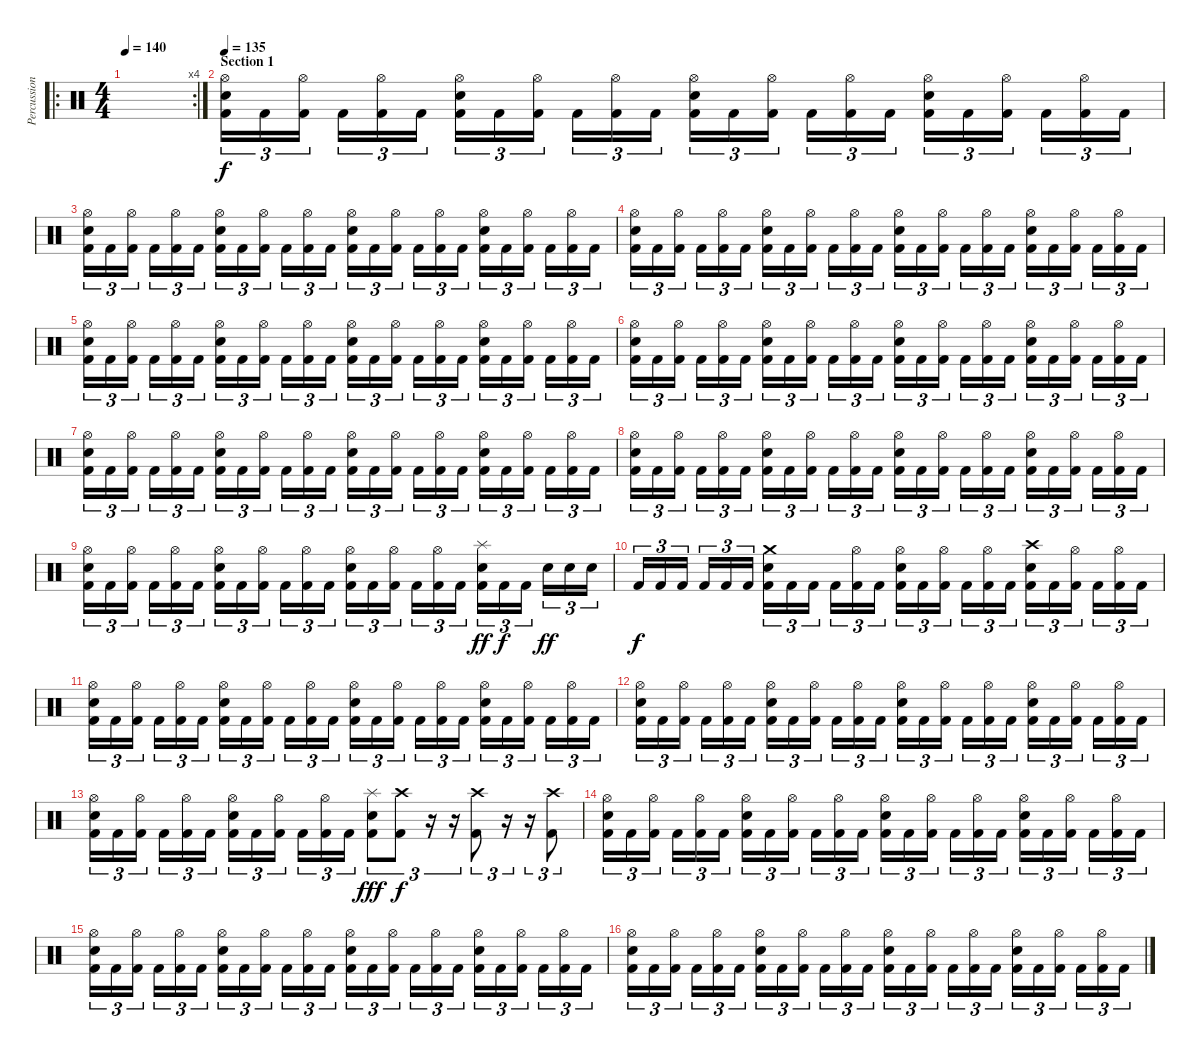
\track ("Percussion" "Percussion") {instrument percussion}
\staff {score}
\articulation defaults
\ro
\rc 4
\ts (4 4)
\tempo 140
\tempo 112
\tempo 140
\clef neutral
\ks c
|
\section ("" "Section 1")
\tempo 135
("Hi-Hat (open)" "Electric Snare (hit)" "Kick (hit) 2").16{tu (3 2)} "Kick (hit) 2".16{tu (3 2)} ("Hi-Hat (open)" "Kick (hit) 2").16{tu (3 2)} "Kick (hit) 2".16{tu (3 2)} ("Hi-Hat (open)" "Kick (hit) 2").16{tu (3 2)} "Kick (hit) 2".16{tu (3 2)} ("Hi-Hat (open)" "Electric Snare (hit)" "Kick (hit) 2").16{tu (3 2)} "Kick (hit) 2".16{tu (3 2)} ("Hi-Hat (open)" "Kick (hit) 2").16{tu (3 2)} "Kick (hit) 2".16{tu (3 2)} ("Hi-Hat (open)" "Kick (hit) 2").16{tu (3 2)} "Kick (hit) 2".16{tu (3 2)} ("Hi-Hat (open)" "Electric Snare (hit)" "Kick (hit) 2").16{tu (3 2)} "Kick (hit) 2".16{tu (3 2)} ("Hi-Hat (open)" "Kick (hit) 2").16{tu (3 2)} "Kick (hit) 2".16{tu (3 2)} ("Hi-Hat (open)" "Kick (hit) 2").16{tu (3 2)} "Kick (hit) 2".16{tu (3 2)} ("Hi-Hat (open)" "Electric Snare (hit)" "Kick (hit) 2").16{tu (3 2)} "Kick (hit) 2".16{tu (3 2)} ("Hi-Hat (open)" "Kick (hit) 2").16{tu (3 2)} "Kick (hit) 2".16{tu (3 2)} ("Hi-Hat (open)" "Kick (hit) 2").16{tu (3 2)} "Kick (hit) 2".16{tu (3 2)} |
("Hi-Hat (open)" "Electric Snare (hit)" "Kick (hit) 2").16{tu (3 2)} "Kick (hit) 2".16{tu (3 2)} ("Hi-Hat (open)" "Kick (hit) 2").16{tu (3 2)} "Kick (hit) 2".16{tu (3 2)} ("Hi-Hat (open)" "Kick (hit) 2").16{tu (3 2)} "Kick (hit) 2".16{tu (3 2)} ("Hi-Hat (open)" "Electric Snare (hit)" "Kick (hit) 2").16{tu (3 2)} "Kick (hit) 2".16{tu (3 2)} ("Hi-Hat (open)" "Kick (hit) 2").16{tu (3 2)} "Kick (hit) 2".16{tu (3 2)} ("Hi-Hat (open)" "Kick (hit) 2").16{tu (3 2)} "Kick (hit) 2".16{tu (3 2)} ("Hi-Hat (open)" "Electric Snare (hit)" "Kick (hit) 2").16{tu (3 2)} "Kick (hit) 2".16{tu (3 2)} ("Hi-Hat (open)" "Kick (hit) 2").16{tu (3 2)} "Kick (hit) 2".16{tu (3 2)} ("Hi-Hat (open)" "Kick (hit) 2").16{tu (3 2)} "Kick (hit) 2".16{tu (3 2)} ("Hi-Hat (open)" "Electric Snare (hit)" "Kick (hit) 2").16{tu (3 2)} "Kick (hit) 2".16{tu (3 2)} ("Hi-Hat (open)" "Kick (hit) 2").16{tu (3 2)} "Kick (hit) 2".16{tu (3 2)} ("Hi-Hat (open)" "Kick (hit) 2").16{tu (3 2)} "Kick (hit) 2".16{tu (3 2)} |
("Hi-Hat (open)" "Electric Snare (hit)" "Kick (hit) 2").16{tu (3 2)} "Kick (hit) 2".16{tu (3 2)} ("Hi-Hat (open)" "Kick (hit) 2").16{tu (3 2)} "Kick (hit) 2".16{tu (3 2)} ("Hi-Hat (open)" "Kick (hit) 2").16{tu (3 2)} "Kick (hit) 2".16{tu (3 2)} ("Hi-Hat (open)" "Electric Snare (hit)" "Kick (hit) 2").16{tu (3 2)} "Kick (hit) 2".16{tu (3 2)} ("Hi-Hat (open)" "Kick (hit) 2").16{tu (3 2)} "Kick (hit) 2".16{tu (3 2)} ("Hi-Hat (open)" "Kick (hit) 2").16{tu (3 2)} "Kick (hit) 2".16{tu (3 2)} ("Hi-Hat (open)" "Electric Snare (hit)" "Kick (hit) 2").16{tu (3 2)} "Kick (hit) 2".16{tu (3 2)} ("Hi-Hat (open)" "Kick (hit) 2").16{tu (3 2)} "Kick (hit) 2".16{tu (3 2)} ("Hi-Hat (open)" "Kick (hit) 2").16{tu (3 2)} "Kick (hit) 2".16{tu (3 2)} ("Hi-Hat (open)" "Electric Snare (hit)" "Kick (hit) 2").16{tu (3 2)} "Kick (hit) 2".16{tu (3 2)} ("Hi-Hat (open)" "Kick (hit) 2").16{tu (3 2)} "Kick (hit) 2".16{tu (3 2)} ("Hi-Hat (open)" "Kick (hit) 2").16{tu (3 2)} "Kick (hit) 2".16{tu (3 2)} |
("Hi-Hat (open)" "Electric Snare (hit)" "Kick (hit) 2").16{tu (3 2)} "Kick (hit) 2".16{tu (3 2)} ("Hi-Hat (open)" "Kick (hit) 2").16{tu (3 2)} "Kick (hit) 2".16{tu (3 2)} ("Hi-Hat (open)" "Kick (hit) 2").16{tu (3 2)} "Kick (hit) 2".16{tu (3 2)} ("Hi-Hat (open)" "Electric Snare (hit)" "Kick (hit) 2").16{tu (3 2)} "Kick (hit) 2".16{tu (3 2)} ("Hi-Hat (open)" "Kick (hit) 2").16{tu (3 2)} "Kick (hit) 2".16{tu (3 2)} ("Hi-Hat (open)" "Kick (hit) 2").16{tu (3 2)} "Kick (hit) 2".16{tu (3 2)} ("Hi-Hat (open)" "Electric Snare (hit)" "Kick (hit) 2").16{tu (3 2)} "Kick (hit) 2".16{tu (3 2)} ("Hi-Hat (open)" "Kick (hit) 2").16{tu (3 2)} "Kick (hit) 2".16{tu (3 2)} ("Hi-Hat (open)" "Kick (hit) 2").16{tu (3 2)} "Kick (hit) 2".16{tu (3 2)} ("Hi-Hat (open)" "Electric Snare (hit)" "Kick (hit) 2").16{tu (3 2)} "Kick (hit) 2".16{tu (3 2)} ("Hi-Hat (open)" "Kick (hit) 2").16{tu (3 2)} "Kick (hit) 2".16{tu (3 2)} ("Hi-Hat (open)" "Kick (hit) 2").16{tu (3 2)} "Kick (hit) 2".16{tu (3 2)} |
("Hi-Hat (open)" "Electric Snare (hit)" "Kick (hit) 2").16{tu (3 2)} "Kick (hit) 2".16{tu (3 2)} ("Hi-Hat (open)" "Kick (hit) 2").16{tu (3 2)} "Kick (hit) 2".16{tu (3 2)} ("Hi-Hat (open)" "Kick (hit) 2").16{tu (3 2)} "Kick (hit) 2".16{tu (3 2)} ("Hi-Hat (open)" "Electric Snare (hit)" "Kick (hit) 2").16{tu (3 2)} "Kick (hit) 2".16{tu (3 2)} ("Hi-Hat (open)" "Kick (hit) 2").16{tu (3 2)} "Kick (hit) 2".16{tu (3 2)} ("Hi-Hat (open)" "Kick (hit) 2").16{tu (3 2)} "Kick (hit) 2".16{tu (3 2)} ("Hi-Hat (open)" "Electric Snare (hit)" "Kick (hit) 2").16{tu (3 2)} "Kick (hit) 2".16{tu (3 2)} ("Hi-Hat (open)" "Kick (hit) 2").16{tu (3 2)} "Kick (hit) 2".16{tu (3 2)} ("Hi-Hat (open)" "Kick (hit) 2").16{tu (3 2)} "Kick (hit) 2".16{tu (3 2)} ("Hi-Hat (open)" "Electric Snare (hit)" "Kick (hit) 2").16{tu (3 2)} "Kick (hit) 2".16{tu (3 2)} ("Hi-Hat (open)" "Kick (hit) 2").16{tu (3 2)} "Kick (hit) 2".16{tu (3 2)} ("Hi-Hat (open)" "Kick (hit) 2").16{tu (3 2)} "Kick (hit) 2".16{tu (3 2)} |
("Hi-Hat (open)" "Electric Snare (hit)" "Kick (hit) 2").16{tu (3 2)} "Kick (hit) 2".16{tu (3 2)} ("Hi-Hat (open)" "Kick (hit) 2").16{tu (3 2)} "Kick (hit) 2".16{tu (3 2)} ("Hi-Hat (open)" "Kick (hit) 2").16{tu (3 2)} "Kick (hit) 2".16{tu (3 2)} ("Hi-Hat (open)" "Electric Snare (hit)" "Kick (hit) 2").16{tu (3 2)} "Kick (hit) 2".16{tu (3 2)} ("Hi-Hat (open)" "Kick (hit) 2").16{tu (3 2)} "Kick (hit) 2".16{tu (3 2)} ("Hi-Hat (open)" "Kick (hit) 2").16{tu (3 2)} "Kick (hit) 2".16{tu (3 2)} ("Hi-Hat (open)" "Electric Snare (hit)" "Kick (hit) 2").16{tu (3 2)} "Kick (hit) 2".16{tu (3 2)} ("Hi-Hat (open)" "Kick (hit) 2").16{tu (3 2)} "Kick (hit) 2".16{tu (3 2)} ("Hi-Hat (open)" "Kick (hit) 2").16{tu (3 2)} "Kick (hit) 2".16{tu (3 2)} ("Hi-Hat (open)" "Electric Snare (hit)" "Kick (hit) 2").16{tu (3 2)} "Kick (hit) 2".16{tu (3 2)} ("Hi-Hat (open)" "Kick (hit) 2").16{tu (3 2)} "Kick (hit) 2".16{tu (3 2)} ("Hi-Hat (open)" "Kick (hit) 2").16{tu (3 2)} "Kick (hit) 2".16{tu (3 2)} |
("Hi-Hat (open)" "Electric Snare (hit)" "Kick (hit) 2").16{tu (3 2)} "Kick (hit) 2".16{tu (3 2)} ("Hi-Hat (open)" "Kick (hit) 2").16{tu (3 2)} "Kick (hit) 2".16{tu (3 2)} ("Hi-Hat (open)" "Kick (hit) 2").16{tu (3 2)} "Kick (hit) 2".16{tu (3 2)} ("Hi-Hat (open)" "Electric Snare (hit)" "Kick (hit) 2").16{tu (3 2)} "Kick (hit) 2".16{tu (3 2)} ("Hi-Hat (open)" "Kick (hit) 2").16{tu (3 2)} "Kick (hit) 2".16{tu (3 2)} ("Hi-Hat (open)" "Kick (hit) 2").16{tu (3 2)} "Kick (hit) 2".16{tu (3 2)} ("Hi-Hat (open)" "Electric Snare (hit)" "Kick (hit) 2").16{tu (3 2)} "Kick (hit) 2".16{tu (3 2)} ("Hi-Hat (open)" "Kick (hit) 2").16{tu (3 2)} "Kick (hit) 2".16{tu (3 2)} ("Hi-Hat (open)" "Kick (hit) 2").16{tu (3 2)} "Kick (hit) 2".16{tu (3 2)} ("Hi-Hat (open)" "Electric Snare (hit)" "Kick (hit) 2").16{tu (3 2)} "Kick (hit) 2".16{tu (3 2)} ("Hi-Hat (open)" "Kick (hit) 2").16{tu (3 2)} "Kick (hit) 2".16{tu (3 2)} ("Hi-Hat (open)" "Kick (hit) 2").16{tu (3 2)} "Kick (hit) 2".16{tu (3 2)} |
("Hi-Hat (open)" "Electric Snare (hit)" "Kick (hit) 2").16{tu (3 2)} "Kick (hit) 2".16{tu (3 2)} ("Hi-Hat (open)" "Kick (hit) 2").16{tu (3 2)} "Kick (hit) 2".16{tu (3 2)} ("Hi-Hat (open)" "Kick (hit) 2").16{tu (3 2)} "Kick (hit) 2".16{tu (3 2)} ("Hi-Hat (open)" "Electric Snare (hit)" "Kick (hit) 2").16{tu (3 2)} "Kick (hit) 2".16{tu (3 2)} ("Hi-Hat (open)" "Kick (hit) 2").16{tu (3 2)} "Kick (hit) 2".16{tu (3 2)} ("Hi-Hat (open)" "Kick (hit) 2").16{tu (3 2)} "Kick (hit) 2".16{tu (3 2)} ("Hi-Hat (open)" "Electric Snare (hit)" "Kick (hit) 2").16{tu (3 2)} "Kick (hit) 2".16{tu (3 2)} ("Hi-Hat (open)" "Kick (hit) 2").16{tu (3 2)} "Kick (hit) 2".16{tu (3 2)} ("Hi-Hat (open)" "Kick (hit) 2").16{tu (3 2)} "Kick (hit) 2".16{tu (3 2)} ("Splash (hit)" "Electric Snare (hit)" "Kick (hit) 2").16{tu (3 2) dy ff} "Kick (hit) 2".16{tu (3 2) dy f} "Kick (hit) 2".16{tu (3 2)} "Electric Snare (hit)".16{tu (3 2) dy ff} "Electric Snare (hit)".16{tu (3 2)} "Electric Snare (hit)".16{tu (3 2)} |
"Kick (hit) 2".16{tu (3 2) dy f} "Kick (hit) 2".16{tu (3 2)} "Kick (hit) 2".16{tu (3 2)} "Kick (hit) 2".16{tu (3 2)} "Kick (hit) 2".16{tu (3 2)} "Kick (hit) 2".16{tu (3 2)} ("Crash medium (hit)" "Electric Snare (hit)" "Kick (hit) 2").16{tu (3 2)} "Kick (hit) 2".16{tu (3 2)} "Kick (hit) 2".16{tu (3 2)} "Kick (hit) 2".16{tu (3 2)} ("Hi-Hat (open)" "Kick (hit) 2").16{tu (3 2)} "Kick (hit) 2".16{tu (3 2)} ("Hi-Hat (open)" "Electric Snare (hit)" "Kick (hit) 2").16{tu (3 2)} "Kick (hit) 2".16{tu (3 2)} ("Hi-Hat (open)" "Kick (hit) 2").16{tu (3 2)} "Kick (hit) 2".16{tu (3 2)} ("Hi-Hat (open)" "Kick (hit) 2").16{tu (3 2)} "Kick (hit) 2".16{tu (3 2)} ("Crash high (hit)" "Electric Snare (hit)" "Kick (hit) 2").16{tu (3 2)} "Kick (hit) 2".16{tu (3 2)} ("Hi-Hat (open)" "Kick (hit) 2").16{tu (3 2)} "Kick (hit) 2".16{tu (3 2)} ("Hi-Hat (open)" "Kick (hit) 2").16{tu (3 2)} "Kick (hit) 2".16{tu (3 2)} |
("Hi-Hat (open)" "Electric Snare (hit)" "Kick (hit) 2").16{tu (3 2)} "Kick (hit) 2".16{tu (3 2)} ("Hi-Hat (open)" "Kick (hit) 2").16{tu (3 2)} "Kick (hit) 2".16{tu (3 2)} ("Hi-Hat (open)" "Kick (hit) 2").16{tu (3 2)} "Kick (hit) 2".16{tu (3 2)} ("Hi-Hat (open)" "Electric Snare (hit)" "Kick (hit) 2").16{tu (3 2)} "Kick (hit) 2".16{tu (3 2)} ("Hi-Hat (open)" "Kick (hit) 2").16{tu (3 2)} "Kick (hit) 2".16{tu (3 2)} ("Hi-Hat (open)" "Kick (hit) 2").16{tu (3 2)} "Kick (hit) 2".16{tu (3 2)} ("Hi-Hat (open)" "Electric Snare (hit)" "Kick (hit) 2").16{tu (3 2)} "Kick (hit) 2".16{tu (3 2)} ("Hi-Hat (open)" "Kick (hit) 2").16{tu (3 2)} "Kick (hit) 2".16{tu (3 2)} ("Hi-Hat (open)" "Kick (hit) 2").16{tu (3 2)} "Kick (hit) 2".16{tu (3 2)} ("Hi-Hat (open)" "Electric Snare (hit)" "Kick (hit) 2").16{tu (3 2)} "Kick (hit) 2".16{tu (3 2)} ("Hi-Hat (open)" "Kick (hit) 2").16{tu (3 2)} "Kick (hit) 2".16{tu (3 2)} ("Hi-Hat (open)" "Kick (hit) 2").16{tu (3 2)} "Kick (hit) 2".16{tu (3 2)} |
("Hi-Hat (open)" "Electric Snare (hit)" "Kick (hit) 2").16{tu (3 2)} "Kick (hit) 2".16{tu (3 2)} ("Hi-Hat (open)" "Kick (hit) 2").16{tu (3 2)} "Kick (hit) 2".16{tu (3 2)} ("Hi-Hat (open)" "Kick (hit) 2").16{tu (3 2)} "Kick (hit) 2".16{tu (3 2)} ("Hi-Hat (open)" "Electric Snare (hit)" "Kick (hit) 2").16{tu (3 2)} "Kick (hit) 2".16{tu (3 2)} ("Hi-Hat (open)" "Kick (hit) 2").16{tu (3 2)} "Kick (hit) 2".16{tu (3 2)} ("Hi-Hat (open)" "Kick (hit) 2").16{tu (3 2)} "Kick (hit) 2".16{tu (3 2)} ("Hi-Hat (open)" "Electric Snare (hit)" "Kick (hit) 2").16{tu (3 2)} "Kick (hit) 2".16{tu (3 2)} ("Hi-Hat (open)" "Kick (hit) 2").16{tu (3 2)} "Kick (hit) 2".16{tu (3 2)} ("Hi-Hat (open)" "Kick (hit) 2").16{tu (3 2)} "Kick (hit) 2".16{tu (3 2)} ("Hi-Hat (open)" "Electric Snare (hit)" "Kick (hit) 2").16{tu (3 2)} "Kick (hit) 2".16{tu (3 2)} ("Hi-Hat (open)" "Kick (hit) 2").16{tu (3 2)} "Kick (hit) 2".16{tu (3 2)} ("Hi-Hat (open)" "Kick (hit) 2").16{tu (3 2)} "Kick (hit) 2".16{tu (3 2)} |
("Hi-Hat (open)" "Electric Snare (hit)" "Kick (hit) 2").16{tu (3 2)} "Kick (hit) 2".16{tu (3 2)} ("Hi-Hat (open)" "Kick (hit) 2").16{tu (3 2)} "Kick (hit) 2".16{tu (3 2)} ("Hi-Hat (open)" "Kick (hit) 2").16{tu (3 2)} "Kick (hit) 2".16{tu (3 2)} ("Hi-Hat (open)" "Electric Snare (hit)" "Kick (hit) 2").16{tu (3 2)} "Kick (hit) 2".16{tu (3 2)} ("Hi-Hat (open)" "Kick (hit) 2").16{tu (3 2)} "Kick (hit) 2".16{tu (3 2)} ("Hi-Hat (open)" "Kick (hit) 2").16{tu (3 2)} "Kick (hit) 2".16{tu (3 2)} ("Splash (hit)" "Electric Snare (hit)" "Kick (hit) 2").8{tu (3 2) dy fff} ("Crash high (hit)" "Kick (hit) 2").8{tu (3 2) dy f} r.16{tu (3 2)} r.16{tu (3 2)} ("Crash high (hit)" "Kick (hit) 2").8{tu (3 2)} r.16{tu (3 2)} r.16{tu (3 2)} ("Crash high (hit)" "Kick (hit) 2").8{tu (3 2)} |
("Hi-Hat (open)" "Electric Snare (hit)" "Kick (hit) 2").16{tu (3 2)} "Kick (hit) 2".16{tu (3 2)} ("Hi-Hat (open)" "Kick (hit) 2").16{tu (3 2)} "Kick (hit) 2".16{tu (3 2)} ("Hi-Hat (open)" "Kick (hit) 2").16{tu (3 2)} "Kick (hit) 2".16{tu (3 2)} ("Hi-Hat (open)" "Electric Snare (hit)" "Kick (hit) 2").16{tu (3 2)} "Kick (hit) 2".16{tu (3 2)} ("Hi-Hat (open)" "Kick (hit) 2").16{tu (3 2)} "Kick (hit) 2".16{tu (3 2)} ("Hi-Hat (open)" "Kick (hit) 2").16{tu (3 2)} "Kick (hit) 2".16{tu (3 2)} ("Hi-Hat (open)" "Electric Snare (hit)" "Kick (hit) 2").16{tu (3 2)} "Kick (hit) 2".16{tu (3 2)} ("Hi-Hat (open)" "Kick (hit) 2").16{tu (3 2)} "Kick (hit) 2".16{tu (3 2)} ("Hi-Hat (open)" "Kick (hit) 2").16{tu (3 2)} "Kick (hit) 2".16{tu (3 2)} ("Hi-Hat (open)" "Electric Snare (hit)" "Kick (hit) 2").16{tu (3 2)} "Kick (hit) 2".16{tu (3 2)} ("Hi-Hat (open)" "Kick (hit) 2").16{tu (3 2)} "Kick (hit) 2".16{tu (3 2)} ("Hi-Hat (open)" "Kick (hit) 2").16{tu (3 2)} "Kick (hit) 2".16{tu (3 2)} |
("Hi-Hat (open)" "Electric Snare (hit)" "Kick (hit) 2").16{tu (3 2)} "Kick (hit) 2".16{tu (3 2)} ("Hi-Hat (open)" "Kick (hit) 2").16{tu (3 2)} "Kick (hit) 2".16{tu (3 2)} ("Hi-Hat (open)" "Kick (hit) 2").16{tu (3 2)} "Kick (hit) 2".16{tu (3 2)} ("Hi-Hat (open)" "Electric Snare (hit)" "Kick (hit) 2").16{tu (3 2)} "Kick (hit) 2".16{tu (3 2)} ("Hi-Hat (open)" "Kick (hit) 2").16{tu (3 2)} "Kick (hit) 2".16{tu (3 2)} ("Hi-Hat (open)" "Kick (hit) 2").16{tu (3 2)} "Kick (hit) 2".16{tu (3 2)} ("Hi-Hat (open)" "Electric Snare (hit)" "Kick (hit) 2").16{tu (3 2)} "Kick (hit) 2".16{tu (3 2)} ("Hi-Hat (open)" "Kick (hit) 2").16{tu (3 2)} "Kick (hit) 2".16{tu (3 2)} ("Hi-Hat (open)" "Kick (hit) 2").16{tu (3 2)} "Kick (hit) 2".16{tu (3 2)} ("Hi-Hat (open)" "Electric Snare (hit)" "Kick (hit) 2").16{tu (3 2)} "Kick (hit) 2".16{tu (3 2)} ("Hi-Hat (open)" "Kick (hit) 2").16{tu (3 2)} "Kick (hit) 2".16{tu (3 2)} ("Hi-Hat (open)" "Kick (hit) 2").16{tu (3 2)} "Kick (hit) 2".16{tu (3 2)} |
("Hi-Hat (open)" "Electric Snare (hit)" "Kick (hit) 2").16{tu (3 2)} "Kick (hit) 2".16{tu (3 2)} ("Hi-Hat (open)" "Kick (hit) 2").16{tu (3 2)} "Kick (hit) 2".16{tu (3 2)} ("Hi-Hat (open)" "Kick (hit) 2").16{tu (3 2)} "Kick (hit) 2".16{tu (3 2)} ("Hi-Hat (open)" "Electric Snare (hit)" "Kick (hit) 2").16{tu (3 2)} "Kick (hit) 2".16{tu (3 2)} ("Hi-Hat (open)" "Kick (hit) 2").16{tu (3 2)} "Kick (hit) 2".16{tu (3 2)} ("Hi-Hat (open)" "Kick (hit) 2").16{tu (3 2)} "Kick (hit) 2".16{tu (3 2)} ("Hi-Hat (open)" "Electric Snare (hit)" "Kick (hit) 2").16{tu (3 2)} "Kick (hit) 2".16{tu (3 2)} ("Hi-Hat (open)" "Kick (hit) 2").16{tu (3 2)} "Kick (hit) 2".16{tu (3 2)} ("Hi-Hat (open)" "Kick (hit) 2").16{tu (3 2)} "Kick (hit) 2".16{tu (3 2)} ("Hi-Hat (open)" "Electric Snare (hit)" "Kick (hit) 2").16{tu (3 2)} "Kick (hit) 2".16{tu (3 2)} ("Hi-Hat (open)" "Kick (hit) 2").16{tu (3 2)} "Kick (hit) 2".16{tu (3 2)} ("Hi-Hat (open)" "Kick (hit) 2").16{tu (3 2)} "Kick (hit) 2".16{tu (3 2)}
